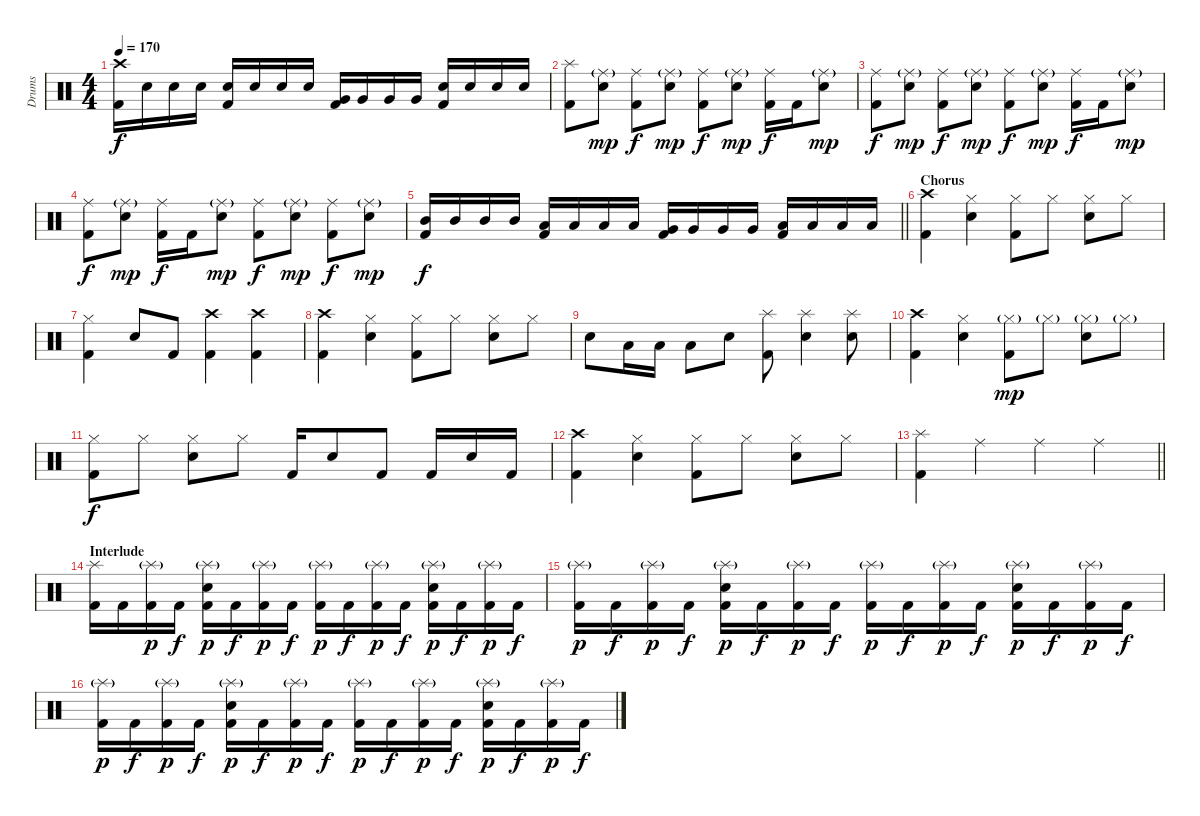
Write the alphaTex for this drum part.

\track ("Drums" "Drums") {instrument percussion}
\staff {score}
\articulation defaults
\ts (4 4)
\tempo 170
\clef neutral
\ks c
("Crash high (hit)" "Kick (hit) 2").16{dy f} "Snare (hit) 2".16 "Snare (hit) 2".16 "Snare (hit) 2".16 ("Snare (hit) 2" "Kick (hit) 2").16 "Snare (hit) 2".16 "Snare (hit) 2".16 "Snare (hit) 2".16 ("Very Low Tom (hit)" "Kick (hit) 2").16 "Very Low Tom (hit)".16 "Very Low Tom (hit)".16 "Very Low Tom (hit)".16 ("Snare (hit) 2" "Kick (hit) 2").16 "Snare (hit) 2".16 "Snare (hit) 2".16 "Snare (hit) 2".16 |
("Splash (hit)" "Kick (hit) 2").8 ("Ride (middle)"{g} "Snare (hit) 2").8{dy mp} ("Ride (middle)" "Kick (hit) 2").8{dy f} ("Ride (middle)"{g} "Snare (hit) 2").8{dy mp} ("Ride (middle)" "Kick (hit) 2").8{dy f} ("Ride (middle)"{g} "Snare (hit) 2").8{dy mp} ("Ride (middle)" "Kick (hit) 2").16{dy f} "Kick (hit) 2".16 ("Ride (middle)"{g} "Snare (hit) 2").8{dy mp} |
("Ride (middle)" "Kick (hit) 2").8{dy f} ("Ride (middle)"{g} "Snare (hit) 2").8{dy mp} ("Ride (middle)" "Kick (hit) 2").8{dy f} ("Ride (middle)"{g} "Snare (hit) 2").8{dy mp} ("Ride (middle)" "Kick (hit) 2").8{dy f} ("Ride (middle)"{g} "Snare (hit) 2").8{dy mp} ("Ride (middle)" "Kick (hit) 2").16{dy f} "Kick (hit) 2".16 ("Ride (middle)"{g} "Snare (hit) 2").8{dy mp} |
("Ride (middle)" "Kick (hit) 2").8{dy f} ("Ride (middle)"{g} "Snare (hit) 2").8{dy mp} ("Ride (middle)" "Kick (hit) 2").16{dy f} "Kick (hit) 2".16 ("Ride (middle)"{g} "Snare (hit) 2").8{dy mp} ("Ride (middle)" "Kick (hit) 2").8{dy f} ("Ride (middle)"{g} "Snare (hit) 2").8{dy mp} ("Ride (middle)" "Kick (hit) 2").8{dy f} ("Ride (middle)"{g} "Snare (hit) 2").8{dy mp} |
\barLineRight lightlight
("Mid Tom (hit)" "Kick (hit) 2").16{dy f} "Mid Tom (hit)".16 "Mid Tom (hit)".16 "Mid Tom (hit)".16 ("Low Tom (hit)" "Kick (hit) 2").16 "Low Tom (hit)".16 "Low Tom (hit)".16 "Low Tom (hit)".16 ("Very Low Tom (hit)" "Kick (hit) 2").16 "Very Low Tom (hit)".16 "Very Low Tom (hit)".16 "Very Low Tom (hit)".16 ("Low Floor Tom (hit)" "Kick (hit) 2").16 "Low Floor Tom (hit)".16 "Low Floor Tom (hit)".16 "Low Floor Tom (hit)".16 |
\section ("" "Chorus")
("Crash high (hit)" "Kick (hit) 2").4 ("Hi-Hat (closed)" "Snare (hit) 2").4 ("Hi-Hat (closed)" "Kick (hit) 2").8 "Hi-Hat (closed)".8 ("Hi-Hat (closed)" "Snare (hit) 2").8 "Hi-Hat (closed)".8 |
("Hi-Hat (closed)" "Kick (hit) 2").4 "Snare (hit) 2".8 "Kick (hit) 2".8 ("Crash high (hit)" "Kick (hit) 2").4 ("Crash high (hit)" "Kick (hit) 2").4 |
("Crash high (hit)" "Kick (hit) 2").4 ("Hi-Hat (closed)" "Snare (hit) 2").4 ("Hi-Hat (closed)" "Kick (hit) 2").8 "Hi-Hat (closed)".8 ("Hi-Hat (closed)" "Snare (hit) 2").8 "Hi-Hat (closed)".8 |
"Snare (hit) 2".8 "Low Tom (hit)".16 "Low Tom (hit)".16 "Low Tom (hit)".8 "Snare (hit) 2".8 ("Splash (hit)" "Kick (hit) 2").8 ("Splash (hit)" "Snare (hit) 2").4 ("Splash (hit)" "Snare (hit) 2").8 |
("Crash high (hit)" "Kick (hit) 2").4 ("Hi-Hat (closed)" "Snare (hit) 2").4 ("Hi-Hat (closed)"{g} "Kick (hit) 2").8{dy mp} "Hi-Hat (closed)"{g}.8 ("Hi-Hat (closed)"{g} "Snare (hit) 2").8 "Hi-Hat (closed)"{g}.8 |
("Hi-Hat (closed)" "Kick (hit) 2").8{dy f} "Hi-Hat (closed)".8 ("Hi-Hat (closed)" "Snare (hit) 2").8 "Hi-Hat (closed)".8 "Kick (hit) 2".16 "Snare (hit) 2".8 "Kick (hit) 2".8 "Kick (hit) 2".16 "Snare (hit) 2".16 "Kick (hit) 2".16 |
("Crash high (hit)" "Kick (hit) 2").4 ("Hi-Hat (closed)" "Snare (hit) 2").4 ("Hi-Hat (closed)" "Kick (hit) 2").8 "Hi-Hat (closed)".8 ("Hi-Hat (closed)" "Snare (hit) 2").8 "Hi-Hat (closed)".8 |
\barLineRight lightlight
("Splash (hit)" "Kick (hit) 2").4 "Ride (middle)".4 "Ride (middle)".4 "Ride (middle)".4 |
\section ("" "Interlude")
("Splash (hit)" "Kick (hit) 2").16 "Kick (hit) 2".16 ("Splash (hit)"{g} "Kick (hit) 2").16{dy p} "Kick (hit) 2".16{dy f} ("Splash (hit)"{g} "Snare (hit) 2" "Kick (hit) 2").16{dy p} "Kick (hit) 2".16{dy f} ("Splash (hit)"{g} "Kick (hit) 2").16{dy p} "Kick (hit) 2".16{dy f} ("Splash (hit)"{g} "Kick (hit) 2").16{dy p} "Kick (hit) 2".16{dy f} ("Splash (hit)"{g} "Kick (hit) 2").16{dy p} "Kick (hit) 2".16{dy f} ("Splash (hit)"{g} "Snare (hit) 2" "Kick (hit) 2").16{dy p} "Kick (hit) 2".16{dy f} ("Splash (hit)"{g} "Kick (hit) 2").16{dy p} "Kick (hit) 2".16{dy f} |
("Splash (hit)"{g} "Kick (hit) 2").16{dy p} "Kick (hit) 2".16{dy f} ("Splash (hit)"{g} "Kick (hit) 2").16{dy p} "Kick (hit) 2".16{dy f} ("Splash (hit)"{g} "Snare (hit) 2" "Kick (hit) 2").16{dy p} "Kick (hit) 2".16{dy f} ("Splash (hit)"{g} "Kick (hit) 2").16{dy p} "Kick (hit) 2".16{dy f} ("Splash (hit)"{g} "Kick (hit) 2").16{dy p} "Kick (hit) 2".16{dy f} ("Splash (hit)"{g} "Kick (hit) 2").16{dy p} "Kick (hit) 2".16{dy f} ("Splash (hit)"{g} "Snare (hit) 2" "Kick (hit) 2").16{dy p} "Kick (hit) 2".16{dy f} ("Splash (hit)"{g} "Kick (hit) 2").16{dy p} "Kick (hit) 2".16{dy f} |
("Splash (hit)"{g} "Kick (hit) 2").16{dy p} "Kick (hit) 2".16{dy f} ("Splash (hit)"{g} "Kick (hit) 2").16{dy p} "Kick (hit) 2".16{dy f} ("Splash (hit)"{g} "Snare (hit) 2" "Kick (hit) 2").16{dy p} "Kick (hit) 2".16{dy f} ("Splash (hit)"{g} "Kick (hit) 2").16{dy p} "Kick (hit) 2".16{dy f} ("Splash (hit)"{g} "Kick (hit) 2").16{dy p} "Kick (hit) 2".16{dy f} ("Splash (hit)"{g} "Kick (hit) 2").16{dy p} "Kick (hit) 2".16{dy f} ("Splash (hit)"{g} "Snare (hit) 2" "Kick (hit) 2").16{dy p} "Kick (hit) 2".16{dy f} ("Splash (hit)"{g} "Kick (hit) 2").16{dy p} "Kick (hit) 2".16{dy f}
